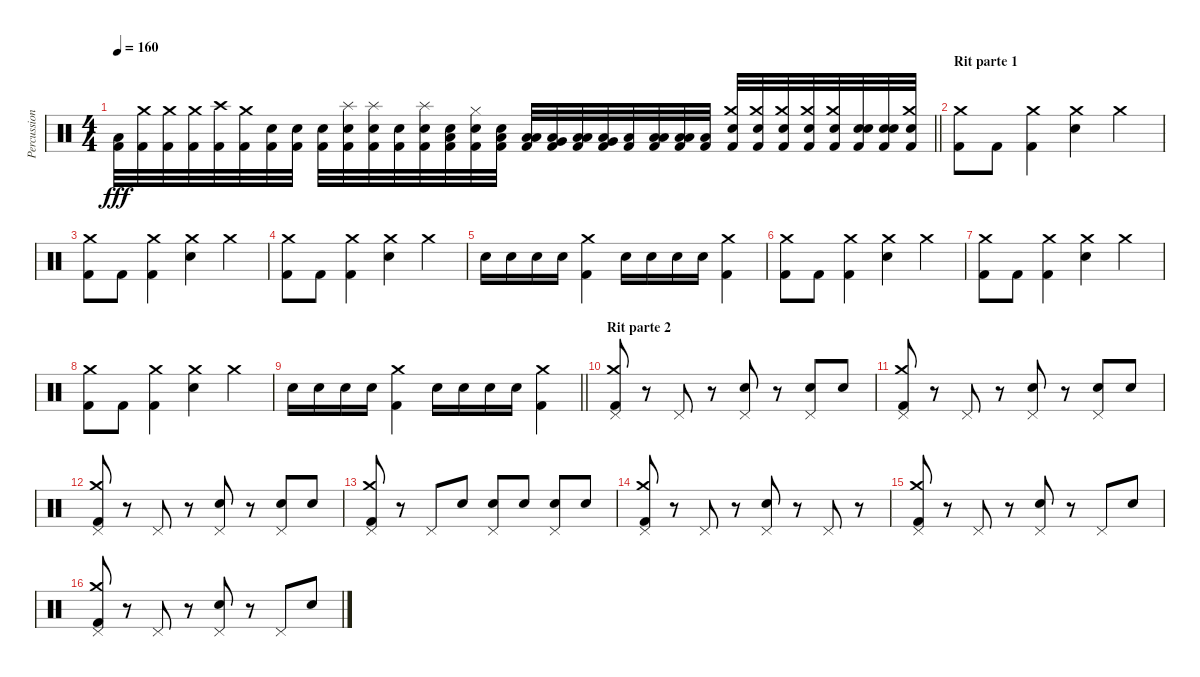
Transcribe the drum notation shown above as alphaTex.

\track ("Percussioni" "Percussion") {instrument percussion}
\staff {score}
\articulation defaults
\ts (4 4)
\tempo 160
\clef neutral
\barLineRight lightlight
\ks c
("Low Tom (hit)" "Kick (hit) 2").32{dy fff} ("Crash medium (hit)" "Kick (hit) 2").32 ("Crash medium (hit)" "Kick (hit) 2").32 ("Crash medium (hit)" "Kick (hit) 2").32 ("Crash high (hit)" "Kick (hit) 2").32 ("Crash medium (hit)" "Kick (hit) 2").32 ("Snare (hit) 2" "Kick (hit) 2").32 ("Snare (hit) 2" "Kick (hit) 2").32 ("Snare (hit) 2" "Kick (hit) 2").32 ("Splash (hit)" "Snare (hit) 2" "Kick (hit) 2").32 ("Splash (hit)" "Snare (hit) 2" "Kick (hit) 2").32 ("Snare (hit) 2" "Kick (hit) 2").32 ("Splash (hit)" "Snare (hit) 2" "Kick (hit) 2").32 ("Low Tom (hit)" "Snare (hit) 2" "Kick (hit) 2").32 ("Hi-Hat (closed)" "Snare (hit) 2" "Kick (hit) 2").32 ("Low Tom (hit)" "Snare (hit) 2" "Kick (hit) 2").32 ("Low Floor Tom (hit)" "Low Tom (hit)" "Kick (hit) 2").32 ("Very Low Tom (hit)" "Low Tom (hit)" "Kick (hit) 2").32 ("Low Tom (hit)" "Low Tom (hit)" "Kick (hit) 2").32 ("Very Low Tom (hit)" "Low Tom (hit)" "Kick (hit) 2").32 ("Low Tom (hit)" "Kick (hit) 2").32 ("Low Floor Tom (hit)" "Low Tom (hit)" "Kick (hit) 2").32 ("Low Floor Tom (hit)" "Low Tom (hit)" "Kick (hit) 2").32 ("Low Tom (hit)" "Kick (hit) 2").32 ("Crash medium (hit)" "Snare (hit) 2" "Kick (hit) 2").32 ("Crash medium (hit)" "Snare (hit) 2" "Kick (hit) 2").32 ("Crash medium (hit)" "Snare (hit) 2" "Kick (hit) 2").32 ("Crash medium (hit)" "Snare (hit) 2" "Kick (hit) 2").32 ("Crash medium (hit)" "Snare (hit) 2" "Kick (hit) 2").32 ("Snare (hit)" "Snare (hit) 2" "Kick (hit) 2").32 ("Snare (hit)" "Snare (hit) 2" "Kick (hit) 2").32 ("Crash medium (hit)" "Snare (hit) 2" "Kick (hit) 2").32 |
\section ("" "Rit parte 1")
("Crash medium (hit)" "Kick (hit) 2").8 "Kick (hit) 2".8 ("Crash medium (hit)" "Kick (hit) 2").4 ("Crash medium (hit)" "Snare (hit) 2").4 "Crash medium (hit)".4 |
("Crash medium (hit)" "Kick (hit) 2").8 "Kick (hit) 2".8 ("Crash medium (hit)" "Kick (hit) 2").4 ("Crash medium (hit)" "Snare (hit) 2").4 "Crash medium (hit)".4 |
("Crash medium (hit)" "Kick (hit) 2").8 "Kick (hit) 2".8 ("Crash medium (hit)" "Kick (hit) 2").4 ("Crash medium (hit)" "Snare (hit) 2").4 "Crash medium (hit)".4 |
"Snare (hit) 2".16 "Snare (hit) 2".16 "Snare (hit) 2".16 "Snare (hit) 2".16 ("Crash medium (hit)" "Kick (hit) 2").4 "Snare (hit) 2".16 "Snare (hit) 2".16 "Snare (hit) 2".16 "Snare (hit) 2".16 ("Crash medium (hit)" "Kick (hit) 2").4 |
("Crash medium (hit)" "Kick (hit) 2").8 "Kick (hit) 2".8 ("Crash medium (hit)" "Kick (hit) 2").4 ("Crash medium (hit)" "Snare (hit) 2").4 "Crash medium (hit)".4 |
("Crash medium (hit)" "Kick (hit) 2").8 "Kick (hit) 2".8 ("Crash medium (hit)" "Kick (hit) 2").4 ("Crash medium (hit)" "Snare (hit) 2").4 "Crash medium (hit)".4 |
("Crash medium (hit)" "Kick (hit) 2").8 "Kick (hit) 2".8 ("Crash medium (hit)" "Kick (hit) 2").4 ("Crash medium (hit)" "Snare (hit) 2").4 "Crash medium (hit)".4 |
\barLineRight lightlight "Snare (hit) 2".16 "Snare (hit) 2".16 "Snare (hit) 2".16 "Snare (hit) 2".16
("Crash medium (hit)" "Kick (hit) 2").4 "Snare (hit) 2".16 "Snare (hit) 2".16 "Snare (hit) 2".16 "Snare (hit) 2".16 ("Crash medium (hit)" "Kick (hit) 2").4 |
\section ("" "Rit parte 2")
("Crash medium (hit)" "Pedal Hi-Hat (hit)" "Kick (hit) 2").8 r.8 "Pedal Hi-Hat (hit)".8 r.8 ("Pedal Hi-Hat (hit)" "Snare (hit) 2").8 r.8 ("Pedal Hi-Hat (hit)" "Snare (hit) 2").8 "Snare (hit) 2".8 |
("Crash medium (hit)" "Pedal Hi-Hat (hit)" "Kick (hit) 2").8 r.8 "Pedal Hi-Hat (hit)".8 r.8 ("Pedal Hi-Hat (hit)" "Snare (hit) 2").8 r.8 ("Pedal Hi-Hat (hit)" "Snare (hit) 2").8 "Snare (hit) 2".8 |
("Crash medium (hit)" "Pedal Hi-Hat (hit)" "Kick (hit) 2").8 r.8 "Pedal Hi-Hat (hit)".8 r.8 ("Pedal Hi-Hat (hit)" "Snare (hit) 2").8 r.8 ("Pedal Hi-Hat (hit)" "Snare (hit) 2").8 "Snare (hit) 2".8 |
("Crash medium (hit)" "Pedal Hi-Hat (hit)" "Kick (hit) 2").8 r.8 "Pedal Hi-Hat (hit)".8 "Snare (hit) 2".8 ("Pedal Hi-Hat (hit)" "Snare (hit) 2").8 "Snare (hit) 2".8 ("Pedal Hi-Hat (hit)" "Snare (hit) 2").8 "Snare (hit) 2".8 |
("Crash medium (hit)" "Pedal Hi-Hat (hit)" "Kick (hit) 2").8 r.8 "Pedal Hi-Hat (hit)".8 r.8 ("Pedal Hi-Hat (hit)" "Snare (hit) 2").8 r.8 "Pedal Hi-Hat (hit)".8 r.8 |
("Crash medium (hit)" "Pedal Hi-Hat (hit)" "Kick (hit) 2").8 r.8 "Pedal Hi-Hat (hit)".8 r.8 ("Pedal Hi-Hat (hit)" "Snare (hit) 2").8 r.8 "Pedal Hi-Hat (hit)".8 "Snare (hit) 2".8 |
("Crash medium (hit)" "Pedal Hi-Hat (hit)" "Kick (hit) 2").8 r.8 "Pedal Hi-Hat (hit)".8 r.8 ("Pedal Hi-Hat (hit)" "Snare (hit) 2").8 r.8 "Pedal Hi-Hat (hit)".8 "Snare (hit) 2".8
